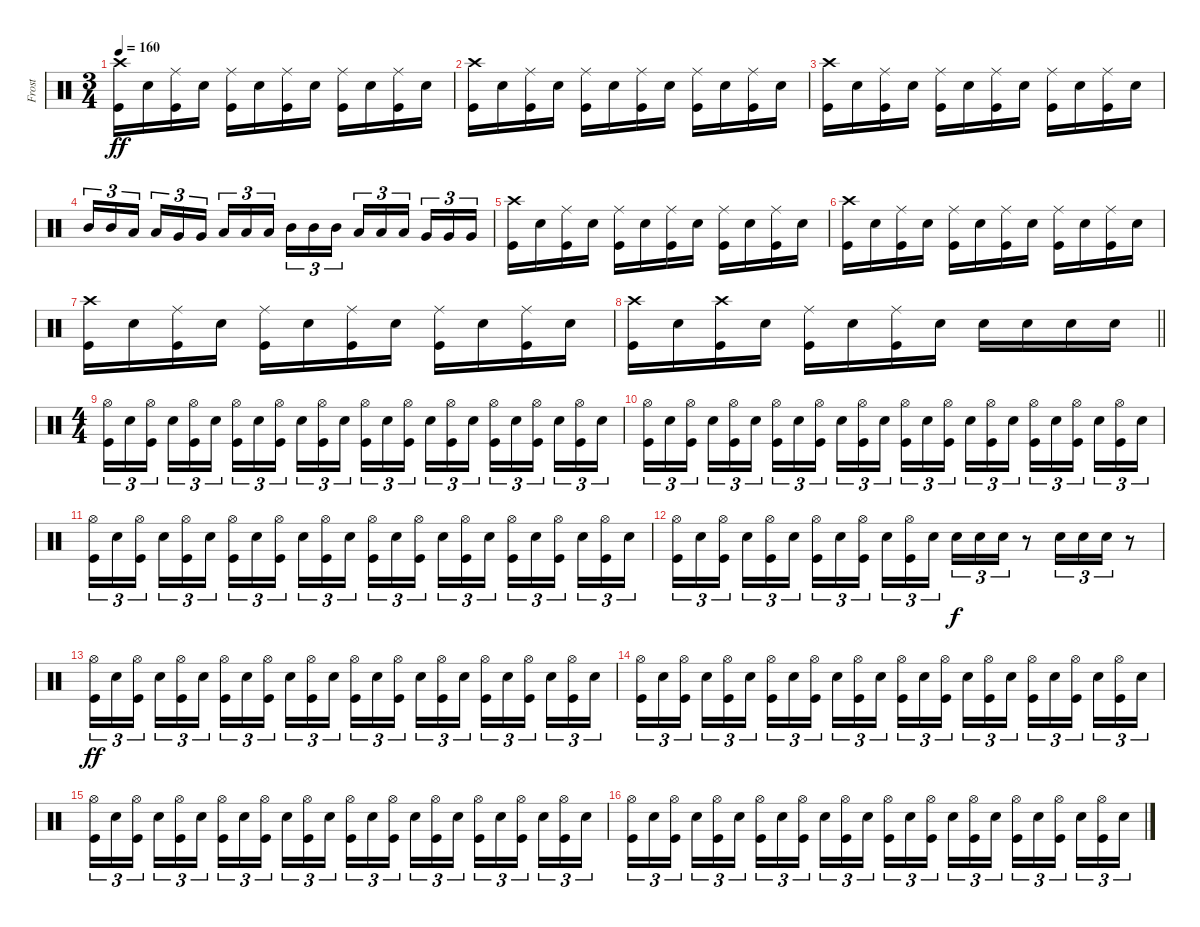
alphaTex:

\track ("Frost" "Frost") {instrument percussion}
\staff {score}
\articulation defaults
\ts (3 4)
\tempo 160
\clef neutral
\ks c
("Crash high (hit)" "Kick (hit)").16{dy ff} "Snare (hit) 2".16 ("Ride (middle)" "Kick (hit)").16 "Snare (hit) 2".16 ("Ride (middle)" "Kick (hit)").16 "Snare (hit) 2".16 ("Ride (middle)" "Kick (hit)").16 "Snare (hit) 2".16 ("Ride (middle)" "Kick (hit)").16 "Snare (hit) 2".16 ("Ride (middle)" "Kick (hit)").16 "Snare (hit) 2".16 |
("Crash high (hit)" "Kick (hit)").16 "Snare (hit) 2".16 ("Ride (middle)" "Kick (hit)").16 "Snare (hit) 2".16 ("Ride (middle)" "Kick (hit)").16 "Snare (hit) 2".16 ("Ride (middle)" "Kick (hit)").16 "Snare (hit) 2".16 ("Ride (middle)" "Kick (hit)").16 "Snare (hit) 2".16 ("Ride (middle)" "Kick (hit)").16 "Snare (hit) 2".16 |
("Crash high (hit)" "Kick (hit)").16 "Snare (hit) 2".16 ("Ride (middle)" "Kick (hit)").16 "Snare (hit) 2".16 ("Ride (middle)" "Kick (hit)").16 "Snare (hit) 2".16 ("Ride (middle)" "Kick (hit)").16 "Snare (hit) 2".16 ("Ride (middle)" "Kick (hit)").16 "Snare (hit) 2".16 ("Ride (middle)" "Kick (hit)").16 "Snare (hit) 2".16 |
"Mid Tom (hit)".16{tu (3 2)} "Mid Tom (hit)".16{tu (3 2)} "Low Tom (hit)".16{tu (3 2) beam splitsecondary} "Low Tom (hit)".16{tu (3 2)} "Very Low Tom (hit)".16{tu (3 2)} "Very Low Tom (hit)".16{tu (3 2)} "Low Floor Tom (hit)".16{tu (3 2)} "Low Floor Tom (hit)".16{tu (3 2)} "Low Floor Tom (hit)".16{tu (3 2) beam splitsecondary} "Mid Tom (hit)".16{tu (3 2)} "Mid Tom (hit)".16{tu (3 2)} "Mid Tom (hit)".16{tu (3 2)} "Low Tom (hit)".16{tu (3 2)} "Low Tom (hit)".16{tu (3 2)} "Low Tom (hit)".16{tu (3 2) beam splitsecondary} "Very Low Tom (hit)".16{tu (3 2)} "Very Low Tom (hit)".16{tu (3 2)} "Very Low Tom (hit)".16{tu (3 2)} |
("Crash high (hit)" "Kick (hit)").16 "Snare (hit) 2".16 ("Ride (middle)" "Kick (hit)").16 "Snare (hit) 2".16 ("Ride (middle)" "Kick (hit)").16 "Snare (hit) 2".16 ("Ride (middle)" "Kick (hit)").16 "Snare (hit) 2".16 ("Ride (middle)" "Kick (hit)").16 "Snare (hit) 2".16 ("Ride (middle)" "Kick (hit)").16 "Snare (hit) 2".16 |
("Crash high (hit)" "Kick (hit)").16 "Snare (hit) 2".16 ("Ride (middle)" "Kick (hit)").16 "Snare (hit) 2".16 ("Ride (middle)" "Kick (hit)").16 "Snare (hit) 2".16 ("Ride (middle)" "Kick (hit)").16 "Snare (hit) 2".16 ("Ride (middle)" "Kick (hit)").16 "Snare (hit) 2".16 ("Ride (middle)" "Kick (hit)").16 "Snare (hit) 2".16 |
("Crash high (hit)" "Kick (hit)").16 "Snare (hit) 2".16 ("Ride (middle)" "Kick (hit)").16 "Snare (hit) 2".16 ("Ride (middle)" "Kick (hit)").16 "Snare (hit) 2".16 ("Ride (middle)" "Kick (hit)").16 "Snare (hit) 2".16 ("Ride (middle)" "Kick (hit)").16 "Snare (hit) 2".16 ("Ride (middle)" "Kick (hit)").16 "Snare (hit) 2".16 |
\barLineRight lightlight
("Crash high (hit)" "Kick (hit)").16 "Snare (hit) 2".16 ("Crash high (hit)" "Kick (hit)").16 "Snare (hit) 2".16 ("Ride (middle)" "Kick (hit)").16 "Snare (hit) 2".16 ("Ride (middle)" "Kick (hit)").16 "Snare (hit) 2".16 "Snare (hit) 2".16 "Snare (hit) 2".16 "Snare (hit) 2".16 "Snare (hit) 2".16 |
\ts (4 4)
("Hi-Hat (open)" "Kick (hit)").16{tu (3 2)} "Snare (hit) 2".16{tu (3 2)} ("Hi-Hat (open)" "Kick (hit)").16{tu (3 2) beam splitsecondary} "Snare (hit) 2".16{tu (3 2)} ("Hi-Hat (open)" "Kick (hit)").16{tu (3 2)} "Snare (hit) 2".16{tu (3 2)} ("Hi-Hat (open)" "Kick (hit)").16{tu (3 2)} "Snare (hit) 2".16{tu (3 2)} ("Hi-Hat (open)" "Kick (hit)").16{tu (3 2) beam splitsecondary} "Snare (hit) 2".16{tu (3 2)} ("Hi-Hat (open)" "Kick (hit)").16{tu (3 2)} "Snare (hit) 2".16{tu (3 2)} ("Hi-Hat (open)" "Kick (hit)").16{tu (3 2)} "Snare (hit) 2".16{tu (3 2)} ("Hi-Hat (open)" "Kick (hit)").16{tu (3 2) beam splitsecondary} "Snare (hit) 2".16{tu (3 2)} ("Hi-Hat (open)" "Kick (hit)").16{tu (3 2)} "Snare (hit) 2".16{tu (3 2)} ("Hi-Hat (open)" "Kick (hit)").16{tu (3 2)} "Snare (hit) 2".16{tu (3 2)} ("Hi-Hat (open)" "Kick (hit)").16{tu (3 2) beam splitsecondary} "Snare (hit) 2".16{tu (3 2)} ("Hi-Hat (open)" "Kick (hit)").16{tu (3 2)} "Snare (hit) 2".16{tu (3 2)} |
("Hi-Hat (open)" "Kick (hit)").16{tu (3 2)} "Snare (hit) 2".16{tu (3 2)} ("Hi-Hat (open)" "Kick (hit)").16{tu (3 2) beam splitsecondary} "Snare (hit) 2".16{tu (3 2)} ("Hi-Hat (open)" "Kick (hit)").16{tu (3 2)} "Snare (hit) 2".16{tu (3 2)} ("Hi-Hat (open)" "Kick (hit)").16{tu (3 2)} "Snare (hit) 2".16{tu (3 2)} ("Hi-Hat (open)" "Kick (hit)").16{tu (3 2) beam splitsecondary} "Snare (hit) 2".16{tu (3 2)} ("Hi-Hat (open)" "Kick (hit)").16{tu (3 2)} "Snare (hit) 2".16{tu (3 2)} ("Hi-Hat (open)" "Kick (hit)").16{tu (3 2)} "Snare (hit) 2".16{tu (3 2)} ("Hi-Hat (open)" "Kick (hit)").16{tu (3 2) beam splitsecondary} "Snare (hit) 2".16{tu (3 2)} ("Hi-Hat (open)" "Kick (hit)").16{tu (3 2)} "Snare (hit) 2".16{tu (3 2)} ("Hi-Hat (open)" "Kick (hit)").16{tu (3 2)} "Snare (hit) 2".16{tu (3 2)} ("Hi-Hat (open)" "Kick (hit)").16{tu (3 2) beam splitsecondary} "Snare (hit) 2".16{tu (3 2)} ("Hi-Hat (open)" "Kick (hit)").16{tu (3 2)} "Snare (hit) 2".16{tu (3 2)} |
("Hi-Hat (open)" "Kick (hit)").16{tu (3 2)} "Snare (hit) 2".16{tu (3 2)} ("Hi-Hat (open)" "Kick (hit)").16{tu (3 2) beam splitsecondary} "Snare (hit) 2".16{tu (3 2)} ("Hi-Hat (open)" "Kick (hit)").16{tu (3 2)} "Snare (hit) 2".16{tu (3 2)} ("Hi-Hat (open)" "Kick (hit)").16{tu (3 2)} "Snare (hit) 2".16{tu (3 2)} ("Hi-Hat (open)" "Kick (hit)").16{tu (3 2) beam splitsecondary} "Snare (hit) 2".16{tu (3 2)} ("Hi-Hat (open)" "Kick (hit)").16{tu (3 2)} "Snare (hit) 2".16{tu (3 2)} ("Hi-Hat (open)" "Kick (hit)").16{tu (3 2)} "Snare (hit) 2".16{tu (3 2)} ("Hi-Hat (open)" "Kick (hit)").16{tu (3 2) beam splitsecondary} "Snare (hit) 2".16{tu (3 2)} ("Hi-Hat (open)" "Kick (hit)").16{tu (3 2)} "Snare (hit) 2".16{tu (3 2)} ("Hi-Hat (open)" "Kick (hit)").16{tu (3 2)} "Snare (hit) 2".16{tu (3 2)} ("Hi-Hat (open)" "Kick (hit)").16{tu (3 2) beam splitsecondary} "Snare (hit) 2".16{tu (3 2)} ("Hi-Hat (open)" "Kick (hit)").16{tu (3 2)} "Snare (hit) 2".16{tu (3 2)} |
("Hi-Hat (open)" "Kick (hit)").16{tu (3 2)} "Snare (hit) 2".16{tu (3 2)} ("Hi-Hat (open)" "Kick (hit)").16{tu (3 2) beam splitsecondary} "Snare (hit) 2".16{tu (3 2)} ("Hi-Hat (open)" "Kick (hit)").16{tu (3 2)} "Snare (hit) 2".16{tu (3 2)} ("Hi-Hat (open)" "Kick (hit)").16{tu (3 2)} "Snare (hit) 2".16{tu (3 2)} ("Hi-Hat (open)" "Kick (hit)").16{tu (3 2) beam splitsecondary} "Snare (hit) 2".16{tu (3 2)} ("Hi-Hat (open)" "Kick (hit)").16{tu (3 2)} "Snare (hit) 2".16{tu (3 2)} "Snare (hit) 2".16{tu (3 2) dy f} "Snare (hit) 2".16{tu (3 2)} "Snare (hit) 2".16{tu (3 2)} r.8 "Snare (hit) 2".16{tu (3 2)} "Snare (hit) 2".16{tu (3 2)} "Snare (hit) 2".16{tu (3 2)} r.8 |
("Hi-Hat (open)" "Kick (hit)").16{tu (3 2) dy ff} "Snare (hit) 2".16{tu (3 2)} ("Hi-Hat (open)" "Kick (hit)").16{tu (3 2) beam splitsecondary} "Snare (hit) 2".16{tu (3 2)} ("Hi-Hat (open)" "Kick (hit)").16{tu (3 2)} "Snare (hit) 2".16{tu (3 2)} ("Hi-Hat (open)" "Kick (hit)").16{tu (3 2)} "Snare (hit) 2".16{tu (3 2)} ("Hi-Hat (open)" "Kick (hit)").16{tu (3 2) beam splitsecondary} "Snare (hit) 2".16{tu (3 2)} ("Hi-Hat (open)" "Kick (hit)").16{tu (3 2)} "Snare (hit) 2".16{tu (3 2)} ("Hi-Hat (open)" "Kick (hit)").16{tu (3 2)} "Snare (hit) 2".16{tu (3 2)} ("Hi-Hat (open)" "Kick (hit)").16{tu (3 2) beam splitsecondary} "Snare (hit) 2".16{tu (3 2)} ("Hi-Hat (open)" "Kick (hit)").16{tu (3 2)} "Snare (hit) 2".16{tu (3 2)} ("Hi-Hat (open)" "Kick (hit)").16{tu (3 2)} "Snare (hit) 2".16{tu (3 2)} ("Hi-Hat (open)" "Kick (hit)").16{tu (3 2) beam splitsecondary} "Snare (hit) 2".16{tu (3 2)} ("Hi-Hat (open)" "Kick (hit)").16{tu (3 2)} "Snare (hit) 2".16{tu (3 2)} |
("Hi-Hat (open)" "Kick (hit)").16{tu (3 2)} "Snare (hit) 2".16{tu (3 2)} ("Hi-Hat (open)" "Kick (hit)").16{tu (3 2) beam splitsecondary} "Snare (hit) 2".16{tu (3 2)} ("Hi-Hat (open)" "Kick (hit)").16{tu (3 2)} "Snare (hit) 2".16{tu (3 2)} ("Hi-Hat (open)" "Kick (hit)").16{tu (3 2)} "Snare (hit) 2".16{tu (3 2)} ("Hi-Hat (open)" "Kick (hit)").16{tu (3 2) beam splitsecondary} "Snare (hit) 2".16{tu (3 2)} ("Hi-Hat (open)" "Kick (hit)").16{tu (3 2)} "Snare (hit) 2".16{tu (3 2)} ("Hi-Hat (open)" "Kick (hit)").16{tu (3 2)} "Snare (hit) 2".16{tu (3 2)} ("Hi-Hat (open)" "Kick (hit)").16{tu (3 2) beam splitsecondary} "Snare (hit) 2".16{tu (3 2)} ("Hi-Hat (open)" "Kick (hit)").16{tu (3 2)} "Snare (hit) 2".16{tu (3 2)} ("Hi-Hat (open)" "Kick (hit)").16{tu (3 2)} "Snare (hit) 2".16{tu (3 2)} ("Hi-Hat (open)" "Kick (hit)").16{tu (3 2) beam splitsecondary} "Snare (hit) 2".16{tu (3 2)} ("Hi-Hat (open)" "Kick (hit)").16{tu (3 2)} "Snare (hit) 2".16{tu (3 2)} |
("Hi-Hat (open)" "Kick (hit)").16{tu (3 2)} "Snare (hit) 2".16{tu (3 2)} ("Hi-Hat (open)" "Kick (hit)").16{tu (3 2) beam splitsecondary} "Snare (hit) 2".16{tu (3 2)} ("Hi-Hat (open)" "Kick (hit)").16{tu (3 2)} "Snare (hit) 2".16{tu (3 2)} ("Hi-Hat (open)" "Kick (hit)").16{tu (3 2)} "Snare (hit) 2".16{tu (3 2)} ("Hi-Hat (open)" "Kick (hit)").16{tu (3 2) beam splitsecondary} "Snare (hit) 2".16{tu (3 2)} ("Hi-Hat (open)" "Kick (hit)").16{tu (3 2)} "Snare (hit) 2".16{tu (3 2)} ("Hi-Hat (open)" "Kick (hit)").16{tu (3 2)} "Snare (hit) 2".16{tu (3 2)} ("Hi-Hat (open)" "Kick (hit)").16{tu (3 2) beam splitsecondary} "Snare (hit) 2".16{tu (3 2)} ("Hi-Hat (open)" "Kick (hit)").16{tu (3 2)} "Snare (hit) 2".16{tu (3 2)} ("Hi-Hat (open)" "Kick (hit)").16{tu (3 2)} "Snare (hit) 2".16{tu (3 2)} ("Hi-Hat (open)" "Kick (hit)").16{tu (3 2) beam splitsecondary} "Snare (hit) 2".16{tu (3 2)} ("Hi-Hat (open)" "Kick (hit)").16{tu (3 2)} "Snare (hit) 2".16{tu (3 2)} |
("Hi-Hat (open)" "Kick (hit)").16{tu (3 2)} "Snare (hit) 2".16{tu (3 2)} ("Hi-Hat (open)" "Kick (hit)").16{tu (3 2) beam splitsecondary} "Snare (hit) 2".16{tu (3 2)} ("Hi-Hat (open)" "Kick (hit)").16{tu (3 2)} "Snare (hit) 2".16{tu (3 2)} ("Hi-Hat (open)" "Kick (hit)").16{tu (3 2)} "Snare (hit) 2".16{tu (3 2)} ("Hi-Hat (open)" "Kick (hit)").16{tu (3 2) beam splitsecondary} "Snare (hit) 2".16{tu (3 2)} ("Hi-Hat (open)" "Kick (hit)").16{tu (3 2)} "Snare (hit) 2".16{tu (3 2)} ("Hi-Hat (open)" "Kick (hit)").16{tu (3 2)} "Snare (hit) 2".16{tu (3 2)} ("Hi-Hat (open)" "Kick (hit)").16{tu (3 2) beam splitsecondary} "Snare (hit) 2".16{tu (3 2)} ("Hi-Hat (open)" "Kick (hit)").16{tu (3 2)} "Snare (hit) 2".16{tu (3 2)} ("Hi-Hat (open)" "Kick (hit)").16{tu (3 2)} "Snare (hit) 2".16{tu (3 2)} ("Hi-Hat (open)" "Kick (hit)").16{tu (3 2) beam splitsecondary} "Snare (hit) 2".16{tu (3 2)} ("Hi-Hat (open)" "Kick (hit)").16{tu (3 2)} "Snare (hit) 2".16{tu (3 2)}
